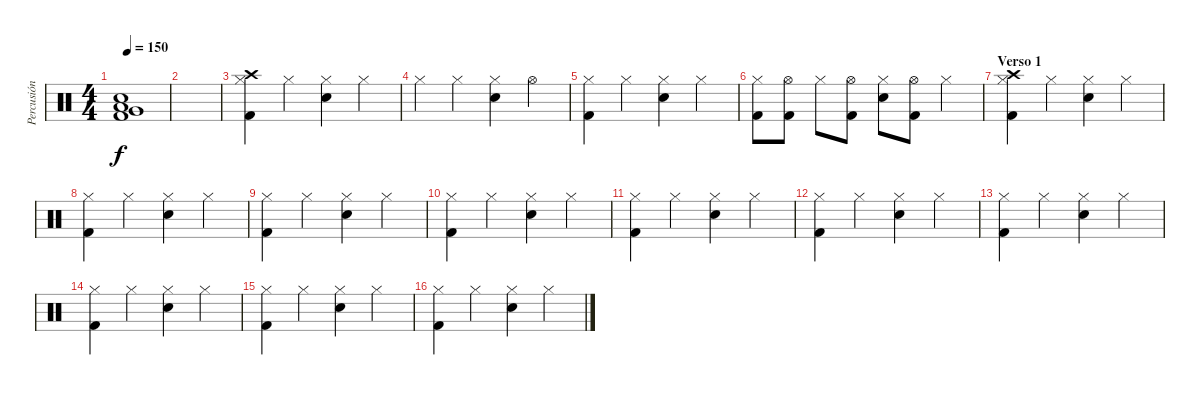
\track ("Percusión" "Percusión") {instrument percussion}
\staff {score}
\articulation defaults
\ts (4 4)
\tempo 150
\clef neutral
\ks c
("Snare (hit) 2" "Very Low Tom (hit)" "Low Floor Tom (hit)" "Kick (hit) 2").1{dy f} |
|
("Crash high (hit)" "Hi-Hat (closed)" "Kick (hit) 2").4 "Hi-Hat (closed)".4 ("Hi-Hat (closed)" "Snare (hit) 2").4 "Hi-Hat (closed)".4 |
"Hi-Hat (closed)".4 "Hi-Hat (closed)".4 ("Hi-Hat (closed)" "Snare (hit) 2").4 "Hi-Hat (open)".4 |
("Hi-Hat (closed)" "Kick (hit) 2").4 "Hi-Hat (closed)".4 ("Hi-Hat (closed)" "Snare (hit) 2").4 "Hi-Hat (closed)".4 |
("Hi-Hat (closed)" "Kick (hit) 2").8 ("Hi-Hat (open)" "Kick (hit) 2").8 "Hi-Hat (closed)".8 ("Hi-Hat (open)" "Kick (hit) 2").8 ("Hi-Hat (closed)" "Snare (hit) 2").8 ("Hi-Hat (open)" "Kick (hit) 2").8 "Hi-Hat (closed)".4 |
\section ("" "Verso 1")
("Crash high (hit)" "Hi-Hat (closed)" "Kick (hit) 2").4 "Hi-Hat (closed)".4 ("Hi-Hat (closed)" "Snare (hit) 2").4 "Hi-Hat (closed)".4 |
("Hi-Hat (closed)" "Kick (hit) 2").4 "Hi-Hat (closed)".4 ("Hi-Hat (closed)" "Snare (hit) 2").4 "Hi-Hat (closed)".4 |
("Hi-Hat (closed)" "Kick (hit) 2").4 "Hi-Hat (closed)".4 ("Hi-Hat (closed)" "Snare (hit) 2").4 "Hi-Hat (closed)".4 |
("Hi-Hat (closed)" "Kick (hit) 2").4 "Hi-Hat (closed)".4 ("Hi-Hat (closed)" "Snare (hit) 2").4 "Hi-Hat (closed)".4 |
("Hi-Hat (closed)" "Kick (hit) 2").4 "Hi-Hat (closed)".4 ("Hi-Hat (closed)" "Snare (hit) 2").4 "Hi-Hat (closed)".4 |
("Hi-Hat (closed)" "Kick (hit) 2").4 "Hi-Hat (closed)".4 ("Hi-Hat (closed)" "Snare (hit) 2").4 "Hi-Hat (closed)".4 |
("Hi-Hat (closed)" "Kick (hit) 2").4 "Hi-Hat (closed)".4 ("Hi-Hat (closed)" "Snare (hit) 2").4 "Hi-Hat (closed)".4 |
("Hi-Hat (closed)" "Kick (hit) 2").4 "Hi-Hat (closed)".4 ("Hi-Hat (closed)" "Snare (hit) 2").4 "Hi-Hat (closed)".4 |
("Hi-Hat (closed)" "Kick (hit) 2").4 "Hi-Hat (closed)".4 ("Hi-Hat (closed)" "Snare (hit) 2").4 "Hi-Hat (closed)".4 |
("Hi-Hat (closed)" "Kick (hit) 2").4 "Hi-Hat (closed)".4 ("Hi-Hat (closed)" "Snare (hit) 2").4 "Hi-Hat (closed)".4
